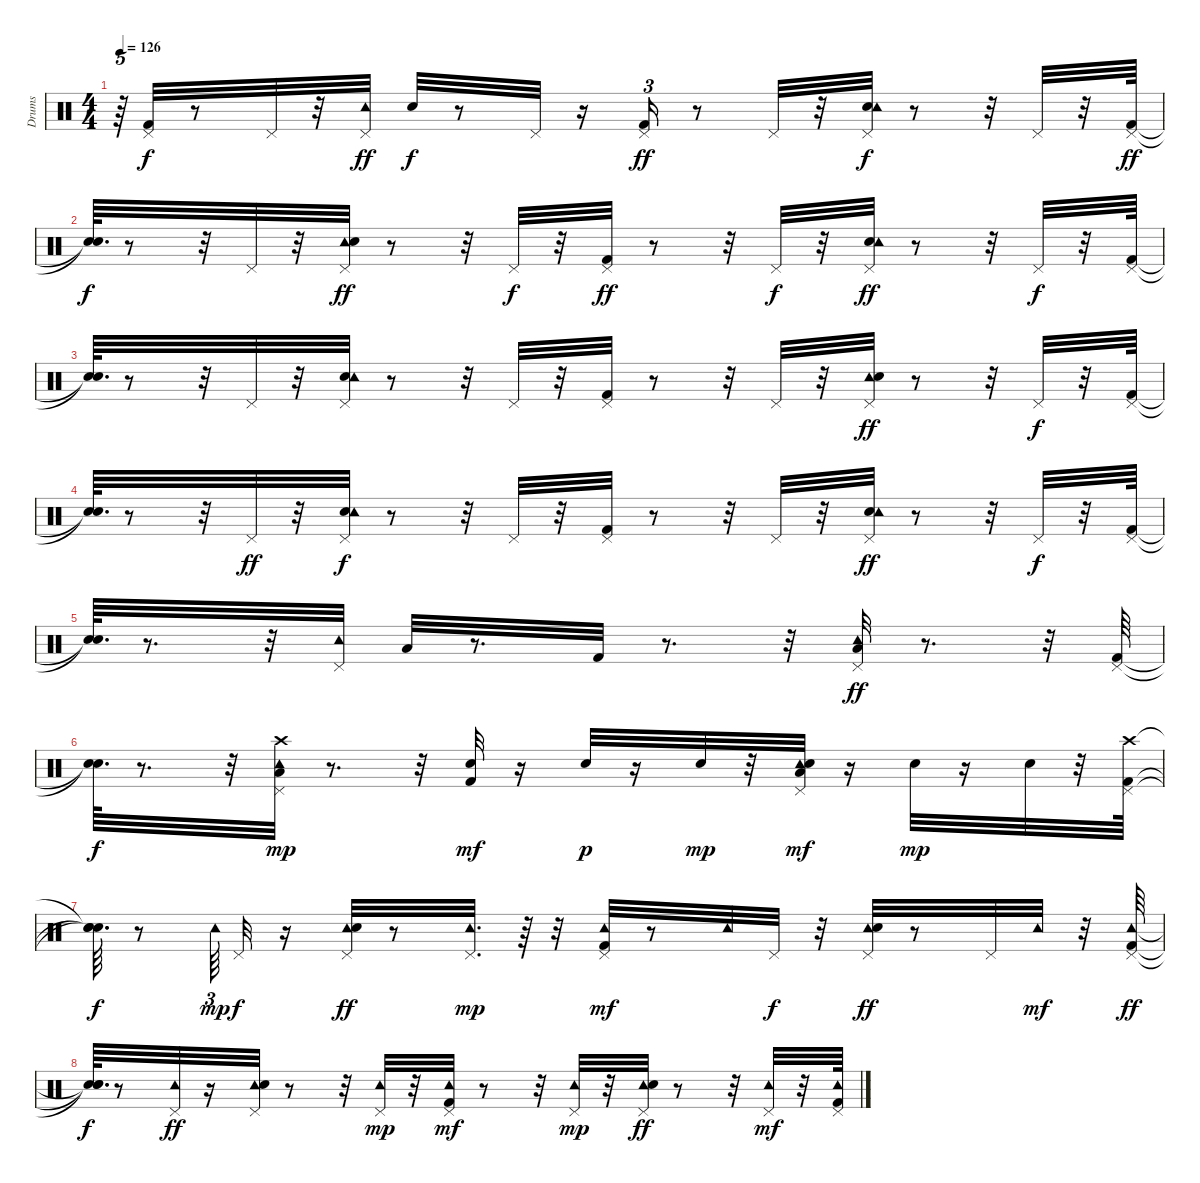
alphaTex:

\track ("Drums" "Drums") {instrument percussion}
\staff {score}
\articulation defaults
\ts (4 4)
\tempo 126
\clef neutral
\ks c
r.64{tu (5 4) dy f} ("Kick (hit) 2" "Pedal Hi-Hat (hit)").32 r.8 "Pedal Hi-Hat (hit)".32 r.32 ("Pedal Hi-Hat (hit)" "Tambourine (hit)").32{dy ff} "Electric Snare (hit)".32{dy f} r.8 "Pedal Hi-Hat (hit)".32 r.16 ("Kick (hit) 2" "Pedal Hi-Hat (hit)").16{tu (3 2) dy ff} r.8 "Pedal Hi-Hat (hit)".32 r.32 ("Electric Snare (hit)" "Tambourine (hit)" "Pedal Hi-Hat (hit)").32{dy f} r.8 r.32 "Pedal Hi-Hat (hit)".32 r.32 ("Kick (hit) 2" "Pedal Hi-Hat (hit)").64{dy ff} |
("Snare (hit)"{t} "Snare (hit)"{t}).64{d dy f} r.8 r.32 "Pedal Hi-Hat (hit)".32 r.32 ("Tambourine (hit)" "Pedal Hi-Hat (hit)" "Electric Snare (hit)").32{dy ff} r.8 r.32 "Pedal Hi-Hat (hit)".32{dy f} r.32 ("Kick (hit) 2" "Pedal Hi-Hat (hit)").32{dy ff} r.8 r.32 "Pedal Hi-Hat (hit)".32{dy f} r.32 ("Electric Snare (hit)" "Pedal Hi-Hat (hit)" "Tambourine (hit)").32{dy ff} r.8 r.32 "Pedal Hi-Hat (hit)".32{dy f} r.32 ("Kick (hit) 2" "Pedal Hi-Hat (hit)").64 |
("Snare (hit)"{t} "Snare (hit)"{t}).64{d} r.8 r.32 "Pedal Hi-Hat (hit)".32 r.32 ("Electric Snare (hit)" "Tambourine (hit)" "Pedal Hi-Hat (hit)").32 r.8 r.32 "Pedal Hi-Hat (hit)".32 r.32 ("Kick (hit) 2" "Pedal Hi-Hat (hit)").32 r.8 r.32 "Pedal Hi-Hat (hit)".32 r.32 ("Tambourine (hit)" "Pedal Hi-Hat (hit)" "Electric Snare (hit)").32{dy ff} r.8 r.32 "Pedal Hi-Hat (hit)".32{dy f} r.32 ("Kick (hit) 2" "Pedal Hi-Hat (hit)").64 |
("Snare (hit)"{t} "Snare (hit)"{t}).64{d} r.8 r.32 "Pedal Hi-Hat (hit)".32{dy ff} r.32 ("Electric Snare (hit)" "Tambourine (hit)" "Pedal Hi-Hat (hit)").32{dy f} r.8 r.32 "Pedal Hi-Hat (hit)".32 r.32 ("Kick (hit) 2" "Pedal Hi-Hat (hit)").32 r.8 r.32 "Pedal Hi-Hat (hit)".32 r.32 ("Electric Snare (hit)" "Pedal Hi-Hat (hit)" "Tambourine (hit)").32{dy ff} r.8 r.32 "Pedal Hi-Hat (hit)".32{dy f} r.32 ("Kick (hit) 2" "Pedal Hi-Hat (hit)").64 |
("Snare (hit)"{t} "Snare (hit)"{t}).64{d} r.8{d} r.32 ("Tambourine (hit)" "Pedal Hi-Hat (hit)").32 "Low Tom (hit)".32 r.8{d} "Kick (hit) 2".32 r.8{d} r.32 ("Tambourine (hit)" "Low Tom (hit)" "Pedal Hi-Hat (hit)").32{dy ff} r.8{d} r.32 ("Kick (hit) 2" "Pedal Hi-Hat (hit)").64 |
("Snare (hit)"{t} "Snare (hit)"{t}).64{d dy f} r.8{d} r.32 ("Tambourine (hit)" "Pedal Hi-Hat (hit)" "Crash high (hit)" "Low Tom (hit)").32{dy mp} r.8{d} r.32 ("Kick (hit) 2" "Snare (hit) 2").32{dy mf} r.16 "Snare (hit) 2".32{dy p} r.16 "Snare (hit) 2".32{dy mp} r.32 ("Tambourine (hit)" "Low Tom (hit)" "Snare (hit) 2" "Pedal Hi-Hat (hit)").32{dy mf} r.16 "Snare (hit) 2".32{dy mp} r.16 "Snare (hit) 2".32 r.32 ("Pedal Hi-Hat (hit)" "Crash high (hit)" "Kick (hit) 2").64 |
("Snare (hit)"{t} "Snare (hit)"{t} "Snare (hit)"{t}).64{d dy f} r.8 "Tambourine (hit)".64{tu (3 2) dy mp} "Pedal Hi-Hat (hit)".32{dy f} r.16 ("Pedal Hi-Hat (hit)" "Tambourine (hit)" "Electric Snare (hit)").32{dy ff} r.8 ("Tambourine (hit)" "Pedal Hi-Hat (hit)").32{d dy mp} r.64 r.32 ("Kick (hit) 2" "Pedal Hi-Hat (hit)" "Tambourine (hit)").32{dy mf} r.8 "Tambourine (hit)".32 "Pedal Hi-Hat (hit)".32{dy f} r.32 ("Tambourine (hit)" "Electric Snare (hit)" "Pedal Hi-Hat (hit)").32{dy ff} r.8 "Pedal Hi-Hat (hit)".32 "Tambourine (hit)".32{dy mf} r.32 ("Tambourine (hit)" "Pedal Hi-Hat (hit)" "Kick (hit) 2").64{dy ff} |
("Snare (hit)"{t} "Snare (hit)"{t} "Snare (hit)"{t}).64{d dy f} r.8 ("Tambourine (hit)" "Pedal Hi-Hat (hit)").32{dy ff} r.16 ("Pedal Hi-Hat (hit)" "Tambourine (hit)" "Electric Snare (hit)").32 r.8 r.32 ("Pedal Hi-Hat (hit)" "Tambourine (hit)").32{dy mp} r.32 ("Kick (hit) 2" "Tambourine (hit)" "Pedal Hi-Hat (hit)").32{dy mf} r.8 r.32 ("Pedal Hi-Hat (hit)" "Tambourine (hit)").32{dy mp} r.32 ("Tambourine (hit)" "Pedal Hi-Hat (hit)" "Electric Snare (hit)").32{dy ff} r.8 r.32 ("Pedal Hi-Hat (hit)" "Tambourine (hit)").32{dy mf} r.32 ("Pedal Hi-Hat (hit)" "Kick (hit) 2" "Tambourine (hit)").64
